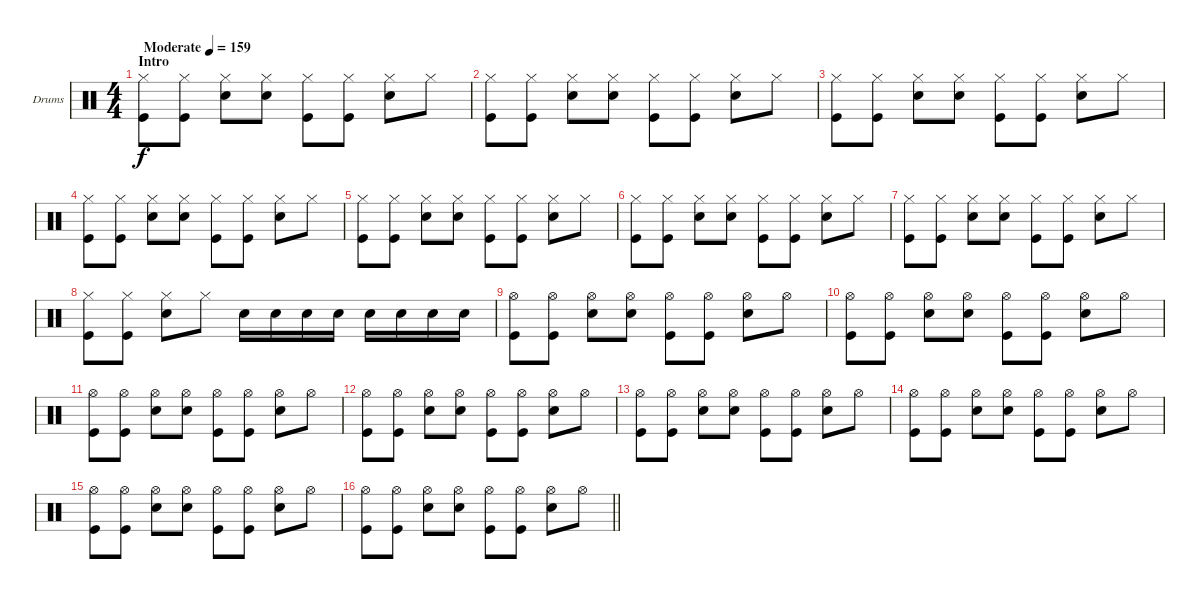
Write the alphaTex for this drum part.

\bracketExtendMode groupsimilarinstruments
\firstSystemTrackNameOrientation horizontal
\otherSystemsTrackNameOrientation horizontal
\track ("Fabrizio" "Drums") {instrument percussion}
\staff {score}
\articulation defaults
\ts (4 4)
\beaming (8 2 2 2 2)
\section ("" "Intro")
\tempo (159 "Moderate")
\clef neutral
\ks c
("Kick (hit)" "Hi-Hat (closed)").8{dy f} ("Kick (hit)" "Hi-Hat (closed)").8 ("Snare (hit) 2" "Hi-Hat (closed)").8 ("Snare (hit) 2" "Hi-Hat (closed)").8 ("Kick (hit)" "Hi-Hat (closed)").8 ("Kick (hit)" "Hi-Hat (closed)").8 ("Snare (hit) 2" "Hi-Hat (closed)").8 "Hi-Hat (closed)".8 |
("Kick (hit)" "Hi-Hat (closed)").8 ("Kick (hit)" "Hi-Hat (closed)").8 ("Snare (hit) 2" "Hi-Hat (closed)").8 ("Snare (hit) 2" "Hi-Hat (closed)").8 ("Kick (hit)" "Hi-Hat (closed)").8 ("Kick (hit)" "Hi-Hat (closed)").8 ("Snare (hit) 2" "Hi-Hat (closed)").8 "Hi-Hat (closed)".8 |
("Kick (hit)" "Hi-Hat (closed)").8 ("Kick (hit)" "Hi-Hat (closed)").8 ("Snare (hit) 2" "Hi-Hat (closed)").8 ("Snare (hit) 2" "Hi-Hat (closed)").8 ("Kick (hit)" "Hi-Hat (closed)").8 ("Kick (hit)" "Hi-Hat (closed)").8 ("Snare (hit) 2" "Hi-Hat (closed)").8 "Hi-Hat (closed)".8 |
("Kick (hit)" "Hi-Hat (closed)").8 ("Kick (hit)" "Hi-Hat (closed)").8 ("Snare (hit) 2" "Hi-Hat (closed)").8 ("Snare (hit) 2" "Hi-Hat (closed)").8 ("Kick (hit)" "Hi-Hat (closed)").8 ("Kick (hit)" "Hi-Hat (closed)").8 ("Snare (hit) 2" "Hi-Hat (closed)").8 "Hi-Hat (closed)".8 |
("Kick (hit)" "Hi-Hat (closed)").8 ("Kick (hit)" "Hi-Hat (closed)").8 ("Snare (hit) 2" "Hi-Hat (closed)").8 ("Snare (hit) 2" "Hi-Hat (closed)").8 ("Kick (hit)" "Hi-Hat (closed)").8 ("Kick (hit)" "Hi-Hat (closed)").8 ("Snare (hit) 2" "Hi-Hat (closed)").8 "Hi-Hat (closed)".8 |
("Kick (hit)" "Hi-Hat (closed)").8 ("Kick (hit)" "Hi-Hat (closed)").8 ("Snare (hit) 2" "Hi-Hat (closed)").8 ("Snare (hit) 2" "Hi-Hat (closed)").8 ("Kick (hit)" "Hi-Hat (closed)").8 ("Kick (hit)" "Hi-Hat (closed)").8 ("Snare (hit) 2" "Hi-Hat (closed)").8 "Hi-Hat (closed)".8 |
("Kick (hit)" "Hi-Hat (closed)").8 ("Kick (hit)" "Hi-Hat (closed)").8 ("Snare (hit) 2" "Hi-Hat (closed)").8 ("Snare (hit) 2" "Hi-Hat (closed)").8 ("Kick (hit)" "Hi-Hat (closed)").8 ("Kick (hit)" "Hi-Hat (closed)").8 ("Snare (hit) 2" "Hi-Hat (closed)").8 "Hi-Hat (closed)".8 |
("Kick (hit)" "Hi-Hat (closed)").8 ("Kick (hit)" "Hi-Hat (closed)").8 ("Snare (hit) 2" "Hi-Hat (closed)").8 "Hi-Hat (closed)".8 "Snare (hit) 2".16 "Snare (hit) 2".16 "Snare (hit) 2".16 "Snare (hit) 2".16 "Snare (hit) 2".16 "Snare (hit) 2".16 "Snare (hit) 2".16 "Snare (hit) 2".16 |
("Kick (hit)" "Hi-Hat (open)").8 ("Kick (hit)" "Hi-Hat (open)").8 ("Snare (hit) 2" "Hi-Hat (open)").8 ("Snare (hit) 2" "Hi-Hat (open)").8 ("Hi-Hat (open)" "Kick (hit)").8 ("Kick (hit)" "Hi-Hat (open)").8 ("Snare (hit) 2" "Hi-Hat (open)").8 "Hi-Hat (open)".8 |
("Kick (hit)" "Hi-Hat (open)").8 ("Kick (hit)" "Hi-Hat (open)").8 ("Snare (hit) 2" "Hi-Hat (open)").8 ("Snare (hit) 2" "Hi-Hat (open)").8 ("Hi-Hat (open)" "Kick (hit)").8 ("Kick (hit)" "Hi-Hat (open)").8 ("Snare (hit) 2" "Hi-Hat (open)").8 "Hi-Hat (open)".8 |
("Kick (hit)" "Hi-Hat (open)").8 ("Kick (hit)" "Hi-Hat (open)").8 ("Snare (hit) 2" "Hi-Hat (open)").8 ("Snare (hit) 2" "Hi-Hat (open)").8 ("Hi-Hat (open)" "Kick (hit)").8 ("Kick (hit)" "Hi-Hat (open)").8 ("Snare (hit) 2" "Hi-Hat (open)").8 "Hi-Hat (open)".8 |
("Kick (hit)" "Hi-Hat (open)").8 ("Kick (hit)" "Hi-Hat (open)").8 ("Snare (hit) 2" "Hi-Hat (open)").8 ("Snare (hit) 2" "Hi-Hat (open)").8 ("Hi-Hat (open)" "Kick (hit)").8 ("Kick (hit)" "Hi-Hat (open)").8 ("Snare (hit) 2" "Hi-Hat (open)").8 "Hi-Hat (open)".8 |
("Kick (hit)" "Hi-Hat (open)").8 ("Kick (hit)" "Hi-Hat (open)").8 ("Snare (hit) 2" "Hi-Hat (open)").8 ("Snare (hit) 2" "Hi-Hat (open)").8 ("Hi-Hat (open)" "Kick (hit)").8 ("Kick (hit)" "Hi-Hat (open)").8 ("Snare (hit) 2" "Hi-Hat (open)").8 "Hi-Hat (open)".8 |
("Kick (hit)" "Hi-Hat (open)").8 ("Kick (hit)" "Hi-Hat (open)").8 ("Snare (hit) 2" "Hi-Hat (open)").8 ("Snare (hit) 2" "Hi-Hat (open)").8 ("Hi-Hat (open)" "Kick (hit)").8 ("Kick (hit)" "Hi-Hat (open)").8 ("Snare (hit) 2" "Hi-Hat (open)").8 "Hi-Hat (open)".8 |
("Kick (hit)" "Hi-Hat (open)").8 ("Kick (hit)" "Hi-Hat (open)").8 ("Snare (hit) 2" "Hi-Hat (open)").8 ("Snare (hit) 2" "Hi-Hat (open)").8 ("Hi-Hat (open)" "Kick (hit)").8 ("Kick (hit)" "Hi-Hat (open)").8 ("Snare (hit) 2" "Hi-Hat (open)").8 "Hi-Hat (open)".8 |
\barLineRight lightlight
("Kick (hit)" "Hi-Hat (open)").8 ("Kick (hit)" "Hi-Hat (open)").8 ("Snare (hit) 2" "Hi-Hat (open)").8 ("Snare (hit) 2" "Hi-Hat (open)").8 ("Hi-Hat (open)" "Kick (hit)").8 ("Kick (hit)" "Hi-Hat (open)").8 ("Snare (hit) 2" "Hi-Hat (open)").8 "Hi-Hat (open)".8
